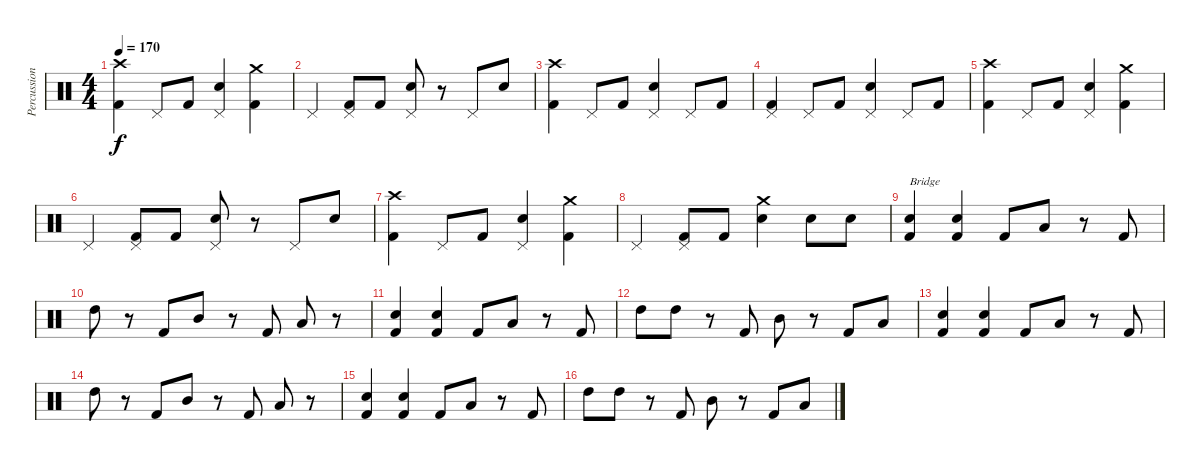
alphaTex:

\track ("Percussion" "Percussion") {instrument percussion}
\staff {score}
\articulation defaults
\ts (4 4)
\tempo 170
\clef neutral
\ks c
("Crash high (hit)" "Kick (hit) 2").4{dy f} "Pedal Hi-Hat (hit)".8 "Kick (hit) 2".8 ("Pedal Hi-Hat (hit)" "Snare (hit) 2").4 ("Crash medium (hit)" "Kick (hit) 2").4 |
"Pedal Hi-Hat (hit)".4 ("Pedal Hi-Hat (hit)" "Kick (hit) 2").8 "Kick (hit) 2".8 ("Pedal Hi-Hat (hit)" "Snare (hit) 2").8 r.8 "Pedal Hi-Hat (hit)".8 "Snare (hit) 2".8 |
("Crash high (hit)" "Kick (hit) 2").4 "Pedal Hi-Hat (hit)".8 "Kick (hit) 2".8 ("Pedal Hi-Hat (hit)" "Snare (hit) 2").4 "Pedal Hi-Hat (hit)".8 "Kick (hit) 2".8 |
("Pedal Hi-Hat (hit)" "Kick (hit) 2").4 "Pedal Hi-Hat (hit)".8 "Kick (hit) 2".8 ("Pedal Hi-Hat (hit)" "Snare (hit) 2").4 "Pedal Hi-Hat (hit)".8 "Kick (hit) 2".8 |
("Crash high (hit)" "Kick (hit) 2").4 "Pedal Hi-Hat (hit)".8 "Kick (hit) 2".8 ("Pedal Hi-Hat (hit)" "Snare (hit) 2").4 ("Crash medium (hit)" "Kick (hit) 2").4 |
"Pedal Hi-Hat (hit)".4 ("Pedal Hi-Hat (hit)" "Kick (hit) 2").8 "Kick (hit) 2".8 ("Pedal Hi-Hat (hit)" "Snare (hit) 2").8 r.8 "Pedal Hi-Hat (hit)".8 "Snare (hit) 2".8 |
("Crash high (hit)" "Kick (hit) 2").4 "Pedal Hi-Hat (hit)".8 "Kick (hit) 2".8 ("Pedal Hi-Hat (hit)" "Snare (hit) 2").4 ("Crash medium (hit)" "Kick (hit) 2").4 |
"Pedal Hi-Hat (hit)".4 ("Pedal Hi-Hat (hit)" "Kick (hit) 2").8 "Kick (hit) 2".8 ("Crash medium (hit)" "Snare (hit) 2").4 "Snare (hit) 2".8 "Snare (hit) 2".8 |
("Snare (hit) 2" "Kick (hit) 2").4{txt "Bridge"} ("Snare (hit) 2" "Kick (hit) 2").4 "Kick (hit) 2".8 "Low Tom (hit)".8 r.8 "Kick (hit) 2".8 |
"High Tom (hit)".8 r.8 "Kick (hit) 2".8 "Mid Tom (hit)".8 r.8 "Kick (hit) 2".8 "Low Tom (hit)".8 r.8 |
("Snare (hit) 2" "Kick (hit) 2").4 ("Snare (hit) 2" "Kick (hit) 2").4 "Kick (hit) 2".8 "Low Tom (hit)".8 r.8 "Kick (hit) 2".8 |
"High Tom (hit)".8 "High Tom (hit)".8 r.8 "Kick (hit) 2".8 "Mid Tom (hit)".8 r.8 "Kick (hit) 2".8 "Low Tom (hit)".8 |
("Snare (hit) 2" "Kick (hit) 2").4 ("Snare (hit) 2" "Kick (hit) 2").4 "Kick (hit) 2".8 "Low Tom (hit)".8 r.8 "Kick (hit) 2".8 |
"High Tom (hit)".8 r.8 "Kick (hit) 2".8 "Mid Tom (hit)".8 r.8 "Kick (hit) 2".8 "Low Tom (hit)".8 r.8 |
("Snare (hit) 2" "Kick (hit) 2").4 ("Snare (hit) 2" "Kick (hit) 2").4 "Kick (hit) 2".8 "Low Tom (hit)".8 r.8 "Kick (hit) 2".8 |
"High Tom (hit)".8 "High Tom (hit)".8 r.8 "Kick (hit) 2".8 "Mid Tom (hit)".8 r.8 "Kick (hit) 2".8 "Low Tom (hit)".8
